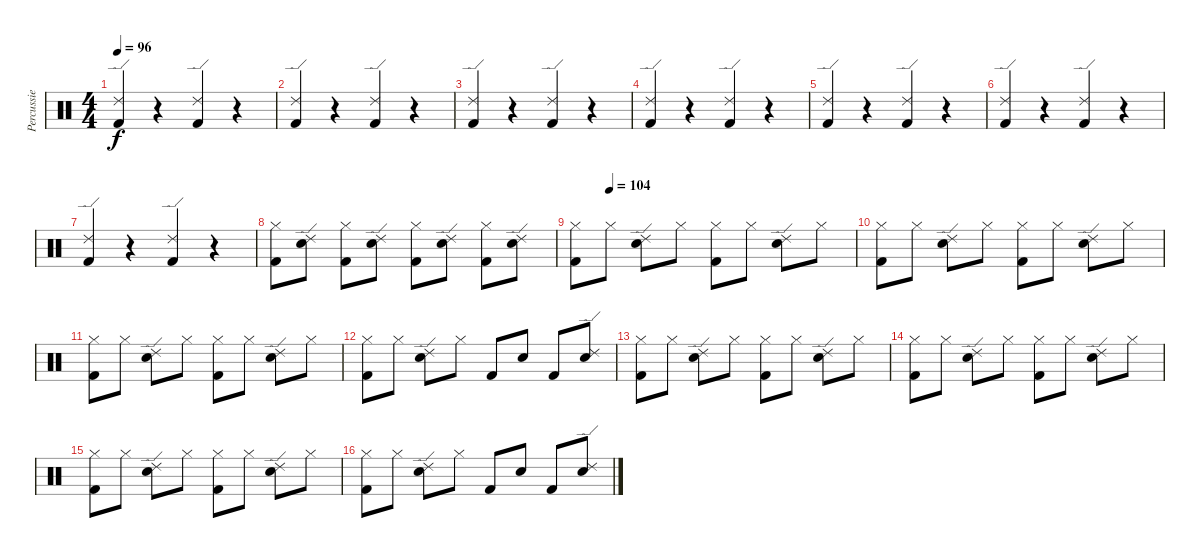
\track ("Percussie" "Percussie") {instrument percussion}
\staff {score}
\articulation defaults
\ts (4 4)
\tempo 96
\clef neutral
\ks c
("Kick (hit) 2" "Ride (edge) 2").4{dy f} r.4 ("Kick (hit) 2" "Ride (edge) 2").4 r.4 |
("Kick (hit) 2" "Ride (edge) 2").4 r.4 ("Kick (hit) 2" "Ride (edge) 2").4 r.4 |
("Kick (hit) 2" "Ride (edge) 2").4 r.4 ("Kick (hit) 2" "Ride (edge) 2").4 r.4 |
("Kick (hit) 2" "Ride (edge) 2").4 r.4 ("Kick (hit) 2" "Ride (edge) 2").4 r.4 |
("Kick (hit) 2" "Ride (edge) 2").4 r.4 ("Kick (hit) 2" "Ride (edge) 2").4 r.4 |
("Kick (hit) 2" "Ride (edge) 2").4 r.4 ("Kick (hit) 2" "Ride (edge) 2").4 r.4 |
("Kick (hit) 2" "Ride (edge) 2").4 r.4 ("Kick (hit) 2" "Ride (edge) 2").4 r.4 |
("Hi-Hat (closed)" "Kick (hit) 2").8 ("Snare (hit) 2" "Ride (edge) 2").8 ("Hi-Hat (closed)" "Kick (hit) 2").8 ("Snare (hit) 2" "Ride (edge) 2").8 ("Hi-Hat (closed)" "Kick (hit) 2").8 ("Snare (hit) 2" "Ride (edge) 2").8 ("Hi-Hat (closed)" "Kick (hit) 2").8 ("Snare (hit) 2" "Ride (edge) 2").8 |
\tempo (104 0.125)
("Hi-Hat (closed)" "Kick (hit) 2").8 "Hi-Hat (closed)".8 ("Snare (hit) 2" "Ride (edge) 2").8 "Hi-Hat (closed)".8 ("Hi-Hat (closed)" "Kick (hit) 2").8 "Hi-Hat (closed)".8 ("Snare (hit) 2" "Ride (edge) 2").8 "Hi-Hat (closed)".8 |
("Hi-Hat (closed)" "Kick (hit) 2").8 "Hi-Hat (closed)".8 ("Snare (hit) 2" "Ride (edge) 2").8 "Hi-Hat (closed)".8 ("Hi-Hat (closed)" "Kick (hit) 2").8 "Hi-Hat (closed)".8 ("Snare (hit) 2" "Ride (edge) 2").8 "Hi-Hat (closed)".8 |
("Hi-Hat (closed)" "Kick (hit) 2").8 "Hi-Hat (closed)".8 ("Snare (hit) 2" "Ride (edge) 2").8 "Hi-Hat (closed)".8 ("Hi-Hat (closed)" "Kick (hit) 2").8 "Hi-Hat (closed)".8 ("Snare (hit) 2" "Ride (edge) 2").8 "Hi-Hat (closed)".8 |
("Hi-Hat (closed)" "Kick (hit) 2").8 "Hi-Hat (closed)".8 ("Snare (hit) 2" "Ride (edge) 2").8 "Hi-Hat (closed)".8 "Kick (hit) 2".8 "Snare (hit) 2".8 "Kick (hit) 2".8 ("Snare (hit) 2" "Ride (edge) 2").8 |
("Hi-Hat (closed)" "Kick (hit) 2").8 "Hi-Hat (closed)".8 ("Snare (hit) 2" "Ride (edge) 2").8 "Hi-Hat (closed)".8 ("Hi-Hat (closed)" "Kick (hit) 2").8 "Hi-Hat (closed)".8 ("Snare (hit) 2" "Ride (edge) 2").8 "Hi-Hat (closed)".8 |
("Hi-Hat (closed)" "Kick (hit) 2").8 "Hi-Hat (closed)".8 ("Snare (hit) 2" "Ride (edge) 2").8 "Hi-Hat (closed)".8 ("Hi-Hat (closed)" "Kick (hit) 2").8 "Hi-Hat (closed)".8 ("Snare (hit) 2" "Ride (edge) 2").8 "Hi-Hat (closed)".8 |
("Hi-Hat (closed)" "Kick (hit) 2").8 "Hi-Hat (closed)".8 ("Snare (hit) 2" "Ride (edge) 2").8 "Hi-Hat (closed)".8 ("Hi-Hat (closed)" "Kick (hit) 2").8 "Hi-Hat (closed)".8 ("Snare (hit) 2" "Ride (edge) 2").8 "Hi-Hat (closed)".8 |
("Hi-Hat (closed)" "Kick (hit) 2").8 "Hi-Hat (closed)".8 ("Snare (hit) 2" "Ride (edge) 2").8 "Hi-Hat (closed)".8 "Kick (hit) 2".8 "Snare (hit) 2".8 "Kick (hit) 2".8 ("Snare (hit) 2" "Ride (edge) 2").8
